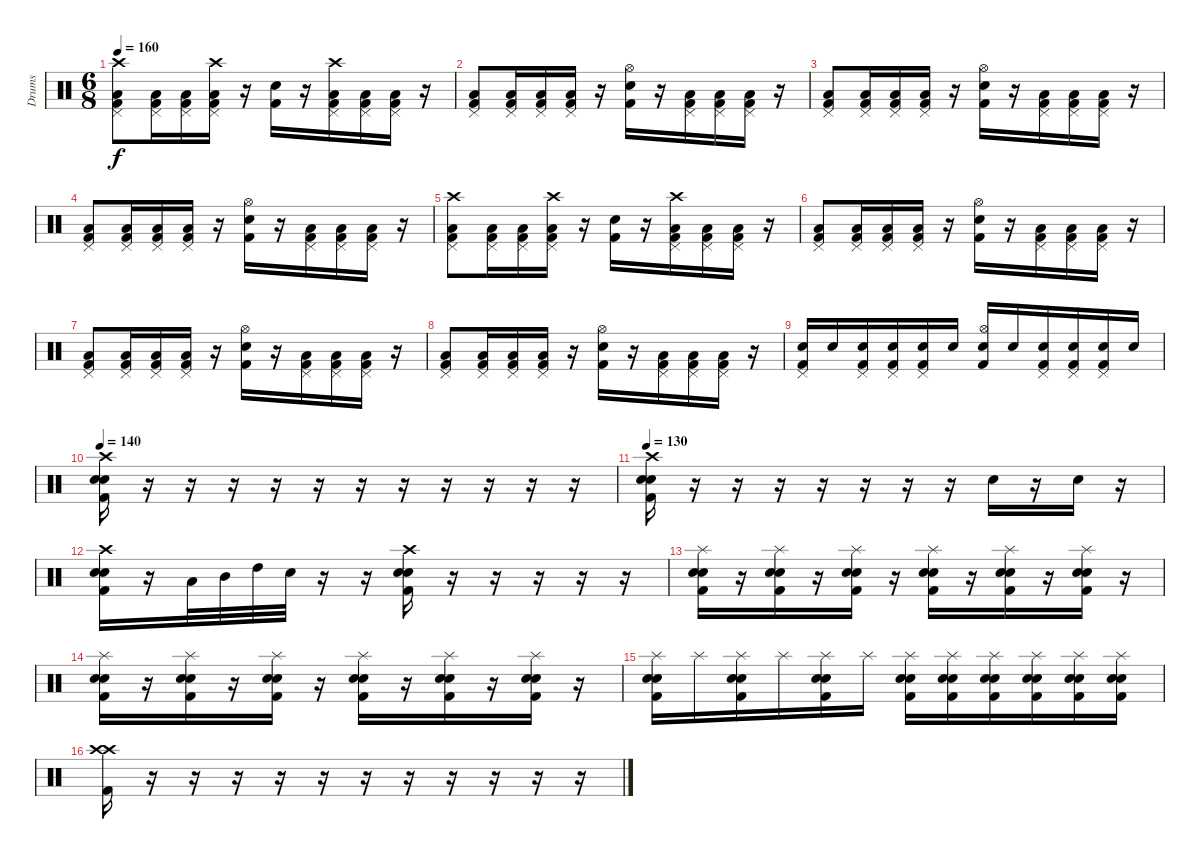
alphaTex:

\track ("Drums" "Drums") {instrument percussion}
\staff {score}
\articulation defaults
\ts (6 8)
\tempo 160
\clef neutral
\ks c
("Crash high (hit)" "Pedal Hi-Hat (hit)" "Low Floor Tom (hit)" "Kick (hit) 2").8{dy f} ("Pedal Hi-Hat (hit)" "Low Floor Tom (hit)" "Kick (hit) 2").16 ("Pedal Hi-Hat (hit)" "Low Floor Tom (hit)" "Kick (hit) 2").16 ("Crash high (hit)" "Pedal Hi-Hat (hit)" "Low Floor Tom (hit)" "Kick (hit) 2").16 r.16 ("Snare (hit) 2" "Kick (hit) 2").16 r.16 ("Crash high (hit)" "Pedal Hi-Hat (hit)" "Low Floor Tom (hit)" "Kick (hit) 2").16 ("Pedal Hi-Hat (hit)" "Low Floor Tom (hit)" "Kick (hit) 2").16 ("Pedal Hi-Hat (hit)" "Low Floor Tom (hit)" "Kick (hit) 2").16 r.16 |
("Pedal Hi-Hat (hit)" "Low Floor Tom (hit)" "Kick (hit) 2").8 ("Pedal Hi-Hat (hit)" "Low Floor Tom (hit)" "Kick (hit) 2").16 ("Pedal Hi-Hat (hit)" "Low Floor Tom (hit)" "Kick (hit) 2").16 ("Pedal Hi-Hat (hit)" "Low Floor Tom (hit)" "Kick (hit) 2").16 r.16 ("Hi-Hat (open)" "Snare (hit) 2" "Kick (hit) 2").16 r.16 ("Pedal Hi-Hat (hit)" "Low Floor Tom (hit)" "Kick (hit) 2").16 ("Pedal Hi-Hat (hit)" "Low Floor Tom (hit)" "Kick (hit) 2").16 ("Pedal Hi-Hat (hit)" "Low Floor Tom (hit)" "Kick (hit) 2").16 r.16 |
("Pedal Hi-Hat (hit)" "Low Floor Tom (hit)" "Kick (hit) 2").8 ("Pedal Hi-Hat (hit)" "Low Floor Tom (hit)" "Kick (hit) 2").16 ("Pedal Hi-Hat (hit)" "Low Floor Tom (hit)" "Kick (hit) 2").16 ("Pedal Hi-Hat (hit)" "Low Floor Tom (hit)" "Kick (hit) 2").16 r.16 ("Hi-Hat (open)" "Snare (hit) 2" "Kick (hit) 2").16 r.16 ("Pedal Hi-Hat (hit)" "Low Floor Tom (hit)" "Kick (hit) 2").16 ("Pedal Hi-Hat (hit)" "Low Floor Tom (hit)" "Kick (hit) 2").16 ("Pedal Hi-Hat (hit)" "Low Floor Tom (hit)" "Kick (hit) 2").16 r.16 |
("Pedal Hi-Hat (hit)" "Low Floor Tom (hit)" "Kick (hit) 2").8 ("Pedal Hi-Hat (hit)" "Low Floor Tom (hit)" "Kick (hit) 2").16 ("Pedal Hi-Hat (hit)" "Low Floor Tom (hit)" "Kick (hit) 2").16 ("Pedal Hi-Hat (hit)" "Low Floor Tom (hit)" "Kick (hit) 2").16 r.16 ("Hi-Hat (open)" "Snare (hit) 2" "Kick (hit) 2").16 r.16 ("Pedal Hi-Hat (hit)" "Low Floor Tom (hit)" "Kick (hit) 2").16 ("Pedal Hi-Hat (hit)" "Low Floor Tom (hit)" "Kick (hit) 2").16 ("Pedal Hi-Hat (hit)" "Low Floor Tom (hit)" "Kick (hit) 2").16 r.16 |
("Crash high (hit)" "Pedal Hi-Hat (hit)" "Low Floor Tom (hit)" "Kick (hit) 2").8 ("Pedal Hi-Hat (hit)" "Low Floor Tom (hit)" "Kick (hit) 2").16 ("Pedal Hi-Hat (hit)" "Low Floor Tom (hit)" "Kick (hit) 2").16 ("Crash high (hit)" "Pedal Hi-Hat (hit)" "Low Floor Tom (hit)" "Kick (hit) 2").16 r.16 ("Snare (hit) 2" "Kick (hit) 2").16 r.16 ("Crash high (hit)" "Pedal Hi-Hat (hit)" "Low Floor Tom (hit)" "Kick (hit) 2").16 ("Pedal Hi-Hat (hit)" "Low Floor Tom (hit)" "Kick (hit) 2").16 ("Pedal Hi-Hat (hit)" "Low Floor Tom (hit)" "Kick (hit) 2").16 r.16 |
("Pedal Hi-Hat (hit)" "Low Floor Tom (hit)" "Kick (hit) 2").8 ("Pedal Hi-Hat (hit)" "Low Floor Tom (hit)" "Kick (hit) 2").16 ("Pedal Hi-Hat (hit)" "Low Floor Tom (hit)" "Kick (hit) 2").16 ("Pedal Hi-Hat (hit)" "Low Floor Tom (hit)" "Kick (hit) 2").16 r.16 ("Hi-Hat (open)" "Snare (hit) 2" "Kick (hit) 2").16 r.16 ("Pedal Hi-Hat (hit)" "Low Floor Tom (hit)" "Kick (hit) 2").16 ("Pedal Hi-Hat (hit)" "Low Floor Tom (hit)" "Kick (hit) 2").16 ("Pedal Hi-Hat (hit)" "Low Floor Tom (hit)" "Kick (hit) 2").16 r.16 |
("Pedal Hi-Hat (hit)" "Low Floor Tom (hit)" "Kick (hit) 2").8 ("Pedal Hi-Hat (hit)" "Low Floor Tom (hit)" "Kick (hit) 2").16 ("Pedal Hi-Hat (hit)" "Low Floor Tom (hit)" "Kick (hit) 2").16 ("Pedal Hi-Hat (hit)" "Low Floor Tom (hit)" "Kick (hit) 2").16 r.16 ("Hi-Hat (open)" "Snare (hit) 2" "Kick (hit) 2").16 r.16 ("Pedal Hi-Hat (hit)" "Low Floor Tom (hit)" "Kick (hit) 2").16 ("Pedal Hi-Hat (hit)" "Low Floor Tom (hit)" "Kick (hit) 2").16 ("Pedal Hi-Hat (hit)" "Low Floor Tom (hit)" "Kick (hit) 2").16 r.16 |
("Pedal Hi-Hat (hit)" "Low Floor Tom (hit)" "Kick (hit) 2").8 ("Pedal Hi-Hat (hit)" "Low Floor Tom (hit)" "Kick (hit) 2").16 ("Pedal Hi-Hat (hit)" "Low Floor Tom (hit)" "Kick (hit) 2").16 ("Pedal Hi-Hat (hit)" "Low Floor Tom (hit)" "Kick (hit) 2").16 r.16 ("Hi-Hat (open)" "Snare (hit) 2" "Kick (hit) 2").16 r.16 ("Pedal Hi-Hat (hit)" "Low Floor Tom (hit)" "Kick (hit) 2").16 ("Pedal Hi-Hat (hit)" "Low Floor Tom (hit)" "Kick (hit) 2").16 ("Pedal Hi-Hat (hit)" "Low Floor Tom (hit)" "Kick (hit) 2").16 r.16 |
("Pedal Hi-Hat (hit)" "Electric Snare (hit)" "Kick (hit) 2").16 "Electric Snare (hit)".16 ("Pedal Hi-Hat (hit)" "Electric Snare (hit)" "Kick (hit) 2").16 ("Pedal Hi-Hat (hit)" "Electric Snare (hit)" "Kick (hit) 2").16 ("Pedal Hi-Hat (hit)" "Electric Snare (hit)" "Kick (hit) 2").16 "Electric Snare (hit)".16 ("Hi-Hat (open)" "Electric Snare (hit)" "Kick (hit) 2").16 "Electric Snare (hit)".16 ("Pedal Hi-Hat (hit)" "Electric Snare (hit)" "Kick (hit) 2").16 ("Pedal Hi-Hat (hit)" "Electric Snare (hit)" "Kick (hit) 2").16 ("Pedal Hi-Hat (hit)" "Electric Snare (hit)" "Kick (hit) 2").16 "Electric Snare (hit)".16 |
\tempo 140
("Crash high (hit)" "Snare (hit) 2" "Electric Snare (hit)" "Kick (hit) 2").16 r.16 r.16 r.16 r.16 r.16 r.16 r.16 r.16 r.16 r.16 r.16 |
\tempo 130
("Crash high (hit)" "Snare (hit) 2" "Electric Snare (hit)" "Kick (hit) 2").16 r.16 r.16 r.16 r.16 r.16 r.16 r.16 "Snare (hit) 2".16 r.16 "Snare (hit) 2".16 r.16 |
("Crash high (hit)" "Snare (hit) 2" "Electric Snare (hit)" "Kick (hit) 2").16 r.16 "Low Tom (hit)".32 "Mid Tom (hit)".32 "High Tom (hit)".32 "Snare (hit) 2".32 r.16 r.16 ("Crash high (hit)" "Snare (hit) 2" "Electric Snare (hit)" "Kick (hit) 2").16 r.16 r.16 r.16 r.16 r.16 |
("Splash (hit)" "Snare (hit) 2" "Electric Snare (hit)" "Kick (hit) 2").16 r.16 ("Splash (hit)" "Snare (hit) 2" "Electric Snare (hit)" "Kick (hit) 2").16 r.16 ("Splash (hit)" "Snare (hit) 2" "Electric Snare (hit)" "Kick (hit) 2").16 r.16 ("Splash (hit)" "Snare (hit) 2" "Electric Snare (hit)" "Kick (hit) 2").16 r.16 ("Splash (hit)" "Snare (hit) 2" "Electric Snare (hit)" "Kick (hit) 2").16 r.16 ("Splash (hit)" "Snare (hit) 2" "Electric Snare (hit)" "Kick (hit) 2").16 r.16 |
("Splash (hit)" "Snare (hit) 2" "Electric Snare (hit)" "Kick (hit) 2").16 r.16 ("Splash (hit)" "Snare (hit) 2" "Electric Snare (hit)" "Kick (hit) 2").16 r.16 ("Splash (hit)" "Snare (hit) 2" "Electric Snare (hit)" "Kick (hit) 2").16 r.16 ("Splash (hit)" "Snare (hit) 2" "Electric Snare (hit)" "Kick (hit) 2").16 r.16 ("Splash (hit)" "Snare (hit) 2" "Electric Snare (hit)" "Kick (hit) 2").16 r.16 ("Splash (hit)" "Snare (hit) 2" "Electric Snare (hit)" "Kick (hit) 2").16 r.16 |
("Splash (hit)" "Snare (hit) 2" "Electric Snare (hit)" "Kick (hit) 2").16 "Splash (hit)".16 ("Splash (hit)" "Snare (hit) 2" "Electric Snare (hit)" "Kick (hit) 2").16 "Splash (hit)".16 ("Splash (hit)" "Snare (hit) 2" "Electric Snare (hit)" "Kick (hit) 2").16 "Splash (hit)".16 ("Splash (hit)" "Snare (hit) 2" "Electric Snare (hit)" "Kick (hit) 2").16 ("Splash (hit)" "Snare (hit) 2" "Electric Snare (hit)" "Kick (hit) 2").16 ("Splash (hit)" "Snare (hit) 2" "Electric Snare (hit)" "Kick (hit) 2").16 ("Splash (hit)" "Snare (hit) 2" "Electric Snare (hit)" "Kick (hit) 2").16 ("Splash (hit)" "Snare (hit) 2" "Electric Snare (hit)" "Kick (hit) 2").16 ("Splash (hit)" "Snare (hit) 2" "Electric Snare (hit)" "Kick (hit) 2").16 |
("Crash high (hit)" "Crash high (hit)" "Kick (hit) 2").16 r.16 r.16 r.16 r.16 r.16 r.16 r.16 r.16 r.16 r.16 r.16
